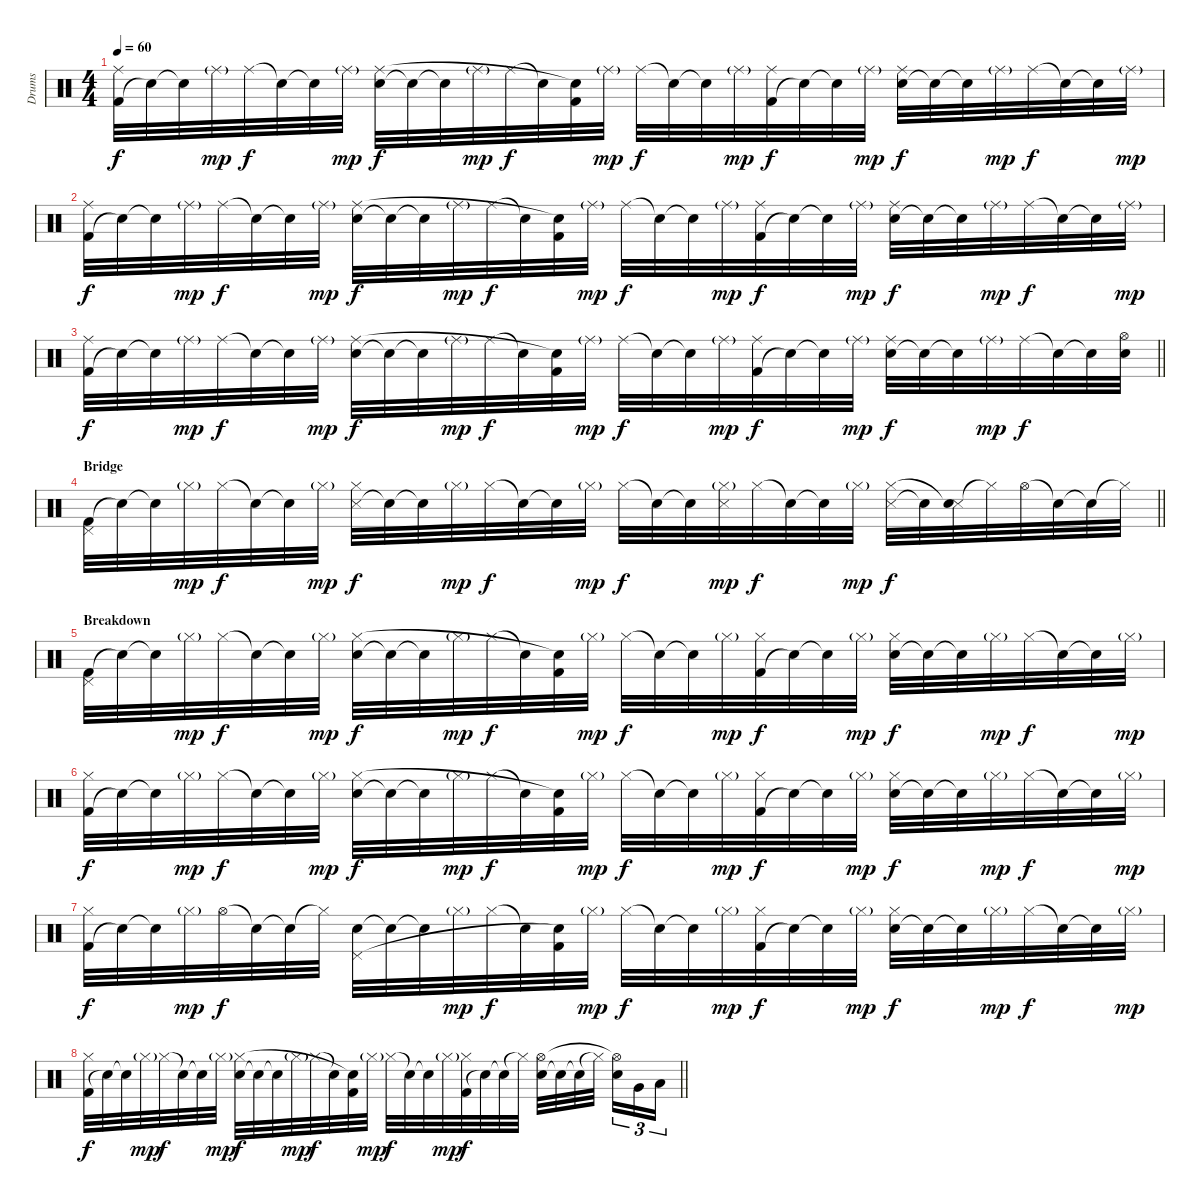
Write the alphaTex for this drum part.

\track ("Drums" "Drums") {instrument percussion}
\staff {score}
\articulation defaults
\ts (4 4)
\tempo 60
\clef neutral
\ks c
("Kick (hit) 2" "Ride (middle)").32{dy f} "Snare (hit)"{t}.32 "Snare (hit)"{t}.32 "Ride (middle)"{g}.32{dy mp} "Ride (middle)".32{dy f} "Snare (hit)"{t}.32 "Snare (hit)"{t}.32 "Ride (middle)"{g}.32{dy mp} ("Electric Snare (hit)" "Ride (middle)").32{dy f} "Snare (hit)"{t}.32 "Snare (hit)"{t}.32 "Ride (middle)"{g}.32{dy mp} "Ride (middle)".32{dy f} "Snare (hit)"{t}.32 ("Kick (hit) 2" "Snare (hit)"{t}).32 "Ride (middle)"{g}.32{dy mp} "Ride (middle)".32{dy f} "Snare (hit)"{t}.32 "Snare (hit)"{t}.32 "Ride (middle)"{g}.32{dy mp} ("Kick (hit) 2" "Ride (middle)").32{dy f} "Snare (hit)"{t}.32 "Snare (hit)"{t}.32 "Ride (middle)"{g}.32{dy mp} ("Electric Snare (hit)" "Ride (middle)").32{dy f} "Snare (hit)"{t}.32 "Snare (hit)"{t}.32 "Ride (middle)"{g}.32{dy mp} "Ride (middle)".32{dy f} "Snare (hit)"{t}.32 "Snare (hit)"{t}.32 "Ride (middle)"{g}.32{dy mp} |
("Kick (hit) 2" "Ride (middle)").32{dy f} "Snare (hit)"{t}.32 "Snare (hit)"{t}.32 "Ride (middle)"{g}.32{dy mp} "Ride (middle)".32{dy f} "Snare (hit)"{t}.32 "Snare (hit)"{t}.32 "Ride (middle)"{g}.32{dy mp} ("Electric Snare (hit)" "Ride (middle)").32{dy f} "Snare (hit)"{t}.32 "Snare (hit)"{t}.32 "Ride (middle)"{g}.32{dy mp} "Ride (middle)".32{dy f} "Snare (hit)"{t}.32 ("Kick (hit) 2" "Snare (hit)"{t}).32 "Ride (middle)"{g}.32{dy mp} "Ride (middle)".32{dy f} "Snare (hit)"{t}.32 "Snare (hit)"{t}.32 "Ride (middle)"{g}.32{dy mp} ("Kick (hit) 2" "Ride (middle)").32{dy f} "Snare (hit)"{t}.32 "Snare (hit)"{t}.32 "Ride (middle)"{g}.32{dy mp} ("Electric Snare (hit)" "Ride (middle)").32{dy f} "Snare (hit)"{t}.32 "Snare (hit)"{t}.32 "Ride (middle)"{g}.32{dy mp} "Ride (middle)".32{dy f} "Snare (hit)"{t}.32 "Snare (hit)"{t}.32 "Ride (middle)"{g}.32{dy mp} |
\barLineRight lightlight
("Kick (hit) 2" "Ride (middle)").32{dy f} "Snare (hit)"{t}.32 "Snare (hit)"{t}.32 "Ride (middle)"{g}.32{dy mp} "Ride (middle)".32{dy f} "Snare (hit)"{t}.32 "Snare (hit)"{t}.32 "Ride (middle)"{g}.32{dy mp} ("Electric Snare (hit)" "Ride (middle)").32{dy f} "Snare (hit)"{t}.32 "Snare (hit)"{t}.32 "Ride (middle)"{g}.32{dy mp} "Ride (middle)".32{dy f} "Snare (hit)"{t}.32 ("Kick (hit) 2" "Snare (hit)"{t}).32 "Ride (middle)"{g}.32{dy mp} "Ride (middle)".32{dy f} "Snare (hit)"{t}.32 "Snare (hit)"{t}.32 "Ride (middle)"{g}.32{dy mp} ("Kick (hit) 2" "Ride (middle)").32{dy f} "Snare (hit)"{t}.32 "Snare (hit)"{t}.32 "Ride (middle)"{g}.32{dy mp} ("Electric Snare (hit)" "Ride (middle)").32{dy f} "Snare (hit)"{t}.32 "Snare (hit)"{t}.32 "Ride (middle)"{g}.32{dy mp} "Ride (middle)".32{dy f} "Snare (hit)"{t}.32 "Snare (hit)"{t}.32 ("Electric Snare (hit)" "Hi-Hat (open)").32 |
\section ("" "Bridge")
\barLineRight lightlight
("Kick (hit) 2" "Pedal Hi-Hat (hit)").32 "Snare (hit)"{t}.32 "Snare (hit)"{t}.32 "Hi-Hat (closed)"{g}.32{dy mp} "Hi-Hat (closed)".32{dy f} "Snare (hit)"{t}.32 "Snare (hit)"{t}.32 "Hi-Hat (closed)"{g}.32{dy mp} ("Snare (side stick) 3" "Hi-Hat (closed)").32{dy f} "Snare (hit)"{t}.32 "Snare (hit)"{t}.32 "Hi-Hat (closed)"{g}.32{dy mp} "Hi-Hat (closed)".32{dy f} "Snare (hit)"{t}.32 "Snare (hit)"{t}.32 "Hi-Hat (closed)"{g}.32{dy mp} "Hi-Hat (closed)".32{dy f} "Snare (hit)"{t}.32 "Snare (hit)"{t}.32 ("Snare (side stick) 3" "Hi-Hat (closed)"{g}).32{dy mp} "Hi-Hat (closed)".32{dy f} "Snare (hit)"{t}.32 "Snare (hit)"{t}.32 "Hi-Hat (closed)"{g}.32{dy mp} ("Snare (side stick) 3" "Hi-Hat (closed)").32{dy f} "Snare (hit)"{t}.32 ("Snare (side stick) 3" "Snare (hit)"{t}).32 "Hi-Hat (closed)"{t}.32 "Hi-Hat (open)".32 "Snare (hit)"{t}.32 "Snare (hit)"{t}.32 "Hi-Hat (closed)"{t}.32 |
\section ("" "Breakdown")
("Kick (hit) 2" "Pedal Hi-Hat (hit)").32 "Snare (hit)"{t}.32 "Snare (hit)"{t}.32 "Hi-Hat (closed)"{g}.32{dy mp} "Hi-Hat (closed)".32{dy f} "Snare (hit)"{t}.32 "Snare (hit)"{t}.32 "Hi-Hat (closed)"{g}.32{dy mp} ("Electric Snare (hit)" "Hi-Hat (closed)").32{dy f} "Snare (hit)"{t}.32 "Snare (hit)"{t}.32 "Hi-Hat (closed)"{g}.32{dy mp} "Hi-Hat (closed)".32{dy f} "Snare (hit)"{t}.32 ("Kick (hit) 2" "Snare (hit)"{t}).32 "Hi-Hat (closed)"{g}.32{dy mp} "Hi-Hat (closed)".32{dy f} "Snare (hit)"{t}.32 "Snare (hit)"{t}.32 "Hi-Hat (closed)"{g}.32{dy mp} ("Kick (hit) 2" "Hi-Hat (closed)").32{dy f} "Snare (hit)"{t}.32 "Snare (hit)"{t}.32 "Hi-Hat (closed)"{g}.32{dy mp} ("Electric Snare (hit)" "Hi-Hat (closed)").32{dy f} "Snare (hit)"{t}.32 "Snare (hit)"{t}.32 "Hi-Hat (closed)"{g}.32{dy mp} "Hi-Hat (closed)".32{dy f} "Snare (hit)"{t}.32 "Snare (hit)"{t}.32 "Hi-Hat (closed)"{g}.32{dy mp} |
("Kick (hit) 2" "Hi-Hat (closed)").32{dy f} "Snare (hit)"{t}.32 "Snare (hit)"{t}.32 "Hi-Hat (closed)"{g}.32{dy mp} "Hi-Hat (closed)".32{dy f} "Snare (hit)"{t}.32 "Snare (hit)"{t}.32 "Hi-Hat (closed)"{g}.32{dy mp} ("Electric Snare (hit)" "Hi-Hat (closed)").32{dy f} "Snare (hit)"{t}.32 "Snare (hit)"{t}.32 "Hi-Hat (closed)"{g}.32{dy mp} "Hi-Hat (closed)".32{dy f} "Snare (hit)"{t}.32 ("Kick (hit) 2" "Snare (hit)"{t}).32 "Hi-Hat (closed)"{g}.32{dy mp} "Hi-Hat (closed)".32{dy f} "Snare (hit)"{t}.32 "Snare (hit)"{t}.32 "Hi-Hat (closed)"{g}.32{dy mp} ("Kick (hit) 2" "Hi-Hat (closed)").32{dy f} "Snare (hit)"{t}.32 "Snare (hit)"{t}.32 "Hi-Hat (closed)"{g}.32{dy mp} ("Electric Snare (hit)" "Hi-Hat (closed)").32{dy f} "Snare (hit)"{t}.32 "Snare (hit)"{t}.32 "Hi-Hat (closed)"{g}.32{dy mp} "Hi-Hat (closed)".32{dy f} "Snare (hit)"{t}.32 "Snare (hit)"{t}.32 "Hi-Hat (closed)"{g}.32{dy mp} |
("Kick (hit) 2" "Hi-Hat (closed)").32{dy f} "Snare (hit)"{t}.32 "Snare (hit)"{t}.32 "Hi-Hat (closed)"{g}.32{dy mp} "Hi-Hat (open)".32{dy f} "Snare (hit)"{t}.32 "Snare (hit)"{t}.32 "Hi-Hat (closed)"{t}.32 ("Electric Snare (hit)" "Pedal Hi-Hat (hit)").32 "Snare (hit)"{t}.32 "Snare (hit)"{t}.32 "Hi-Hat (closed)"{g}.32{dy mp} "Hi-Hat (closed)".32{dy f} "Snare (hit)"{t}.32 ("Kick (hit) 2" "Snare (hit)"{t}).32 "Hi-Hat (closed)"{g}.32{dy mp} "Hi-Hat (closed)".32{dy f} "Snare (hit)"{t}.32 "Snare (hit)"{t}.32 "Hi-Hat (closed)"{g}.32{dy mp} ("Kick (hit) 2" "Hi-Hat (closed)").32{dy f} "Snare (hit)"{t}.32 "Snare (hit)"{t}.32 "Hi-Hat (closed)"{g}.32{dy mp} ("Electric Snare (hit)" "Hi-Hat (closed)").32{dy f} "Snare (hit)"{t}.32 "Snare (hit)"{t}.32 "Hi-Hat (closed)"{g}.32{dy mp} "Hi-Hat (closed)".32{dy f} "Snare (hit)"{t}.32 "Snare (hit)"{t}.32 "Hi-Hat (closed)"{g}.32{dy mp} |
\barLineRight lightlight
("Kick (hit) 2" "Hi-Hat (closed)").32{dy f} "Snare (hit)"{t}.32 "Snare (hit)"{t}.32 "Hi-Hat (closed)"{g}.32{dy mp} "Hi-Hat (closed)".32{dy f} "Snare (hit)"{t}.32 "Snare (hit)"{t}.32 "Hi-Hat (closed)"{g}.32{dy mp} ("Electric Snare (hit)" "Hi-Hat (closed)").32{dy f} "Snare (hit)"{t}.32 "Snare (hit)"{t}.32 "Hi-Hat (closed)"{g}.32{dy mp} "Hi-Hat (closed)".32{dy f} "Snare (hit)"{t}.32 ("Kick (hit) 2" "Snare (hit)"{t}).32 "Hi-Hat (closed)"{g}.32{dy mp} "Hi-Hat (closed)".32{dy f} "Snare (hit)"{t}.32 "Snare (hit)"{t}.32 "Hi-Hat (closed)"{g}.32{dy mp} ("Kick (hit) 2" "Hi-Hat (closed)").32{dy f} "Snare (hit)"{t}.32 "Snare (hit)"{t}.32 "Hi-Hat (closed)"{t}.32 ("Electric Snare (hit)" "Hi-Hat (open)").32 "Snare (hit)"{t}.32 "Snare (hit)"{t}.32 "Hi-Hat (closed)"{t}.32{beam splitsecondary} ("Electric Snare (hit)" "Hi-Hat (open)"{t}).16{tu (3 2)} "Very Low Tom (hit)".16{tu (3 2)} "Low Floor Tom (hit)".16{tu (3 2)}
